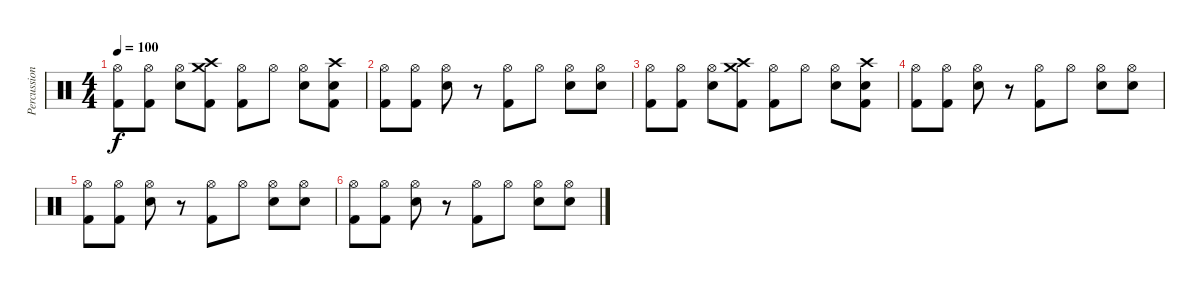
\track ("Percussion" "Percussion") {instrument percussion}
\staff {score}
\articulation defaults
\ts (4 4)
\tempo 100
\clef neutral
\ks c
("Hi-Hat (open)" "Kick (hit) 2").8{dy f} ("Hi-Hat (open)" "Kick (hit) 2").8 ("Hi-Hat (open)" "Snare (hit) 2").8 ("Crash high (hit)" "Crash medium (hit)" "Kick (hit) 2").8 ("Hi-Hat (open)" "Kick (hit) 2").8 "Hi-Hat (open)".8 ("Hi-Hat (open)" "Snare (hit) 2").8 ("Crash high (hit)" "Snare (hit) 2" "Kick (hit) 2").8 |
("Hi-Hat (open)" "Kick (hit) 2").8 ("Hi-Hat (open)" "Kick (hit) 2").8 ("Hi-Hat (open)" "Snare (hit) 2").8 r.8 ("Hi-Hat (open)" "Kick (hit) 2").8 "Hi-Hat (open)".8 ("Hi-Hat (open)" "Snare (hit) 2").8 ("Hi-Hat (open)" "Snare (hit) 2").8 |
("Hi-Hat (open)" "Kick (hit) 2").8 ("Hi-Hat (open)" "Kick (hit) 2").8 ("Hi-Hat (open)" "Snare (hit) 2").8 ("Crash high (hit)" "Crash medium (hit)" "Kick (hit) 2").8 ("Hi-Hat (open)" "Kick (hit) 2").8 "Hi-Hat (open)".8 ("Hi-Hat (open)" "Snare (hit) 2").8 ("Crash high (hit)" "Snare (hit) 2" "Kick (hit) 2").8 |
("Hi-Hat (open)" "Kick (hit) 2").8 ("Hi-Hat (open)" "Kick (hit) 2").8 ("Hi-Hat (open)" "Snare (hit) 2").8 r.8 ("Hi-Hat (open)" "Kick (hit) 2").8 "Hi-Hat (open)".8 ("Hi-Hat (open)" "Snare (hit) 2").8 ("Hi-Hat (open)" "Snare (hit) 2").8 |
("Hi-Hat (open)" "Kick (hit) 2").8 ("Hi-Hat (open)" "Kick (hit) 2").8 ("Hi-Hat (open)" "Snare (hit) 2").8 r.8 ("Hi-Hat (open)" "Kick (hit) 2").8 "Hi-Hat (open)".8 ("Hi-Hat (open)" "Snare (hit) 2").8 ("Hi-Hat (open)" "Snare (hit) 2").8 |
("Hi-Hat (open)" "Kick (hit) 2").8 ("Hi-Hat (open)" "Kick (hit) 2").8 ("Hi-Hat (open)" "Snare (hit) 2").8 r.8 ("Hi-Hat (open)" "Kick (hit) 2").8 "Hi-Hat (open)".8 ("Hi-Hat (open)" "Snare (hit) 2").8 ("Hi-Hat (open)" "Snare (hit) 2").8
